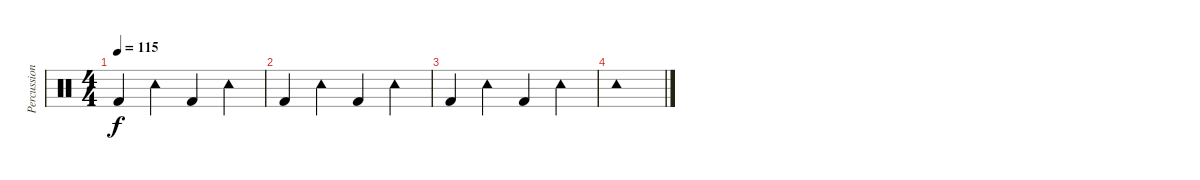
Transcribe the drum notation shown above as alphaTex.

\track ("Percussions" "Percussion") {instrument percussion}
\staff {score}
\articulation defaults
\ts (4 4)
\tempo 115
\clef neutral
\ks c "Kick (hit) 2".4{dy f} "Tambourine (hit)".4 "Kick (hit) 2".4 "Tambourine (hit)".4
|
"Kick (hit) 2".4 "Tambourine (hit)".4 "Kick (hit) 2".4 "Tambourine (hit)".4 |
"Kick (hit) 2".4 "Tambourine (hit)".4 "Kick (hit) 2".4 "Tambourine (hit)".4 |
"Tambourine (hit)".1
